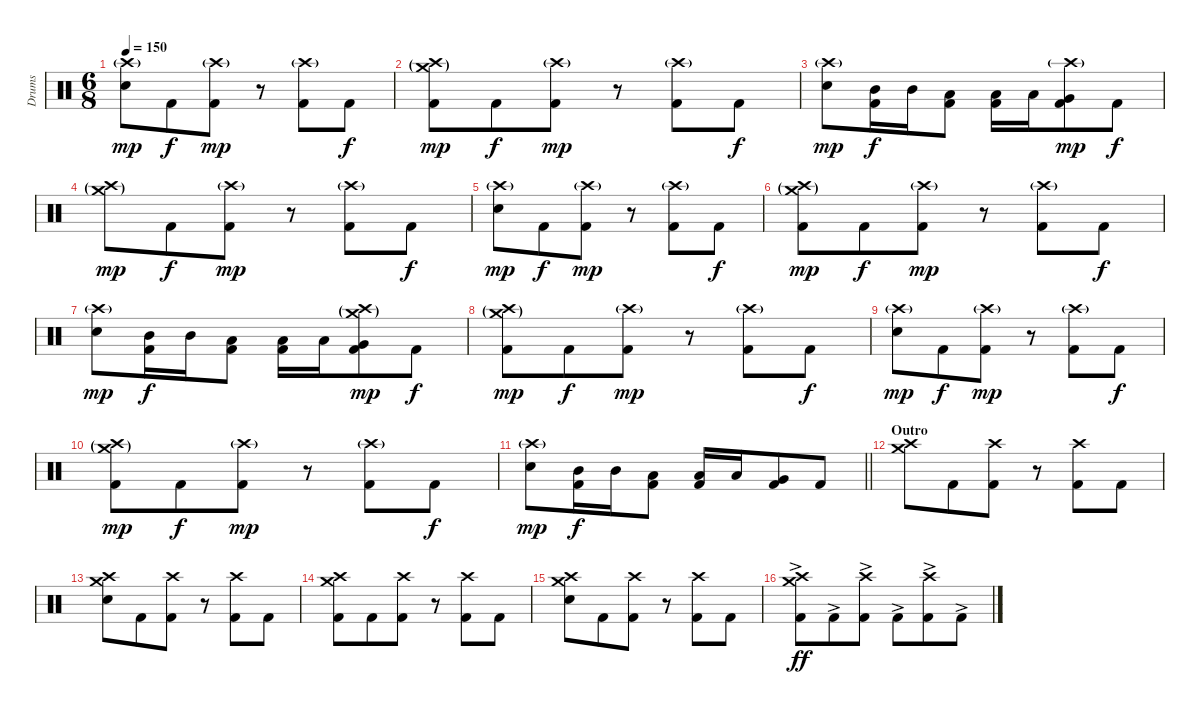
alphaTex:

\track ("Drums" "Drums") {mute instrument percussion}
\staff {score}
\articulation defaults
\ts (6 8)
\tempo 150
\clef neutral
\ks c
("Crash high (hit)"{g} "Electric Snare (hit)").8{dy mp} "Kick (hit) 2".8{dy f} ("Crash high (hit)"{g} "Kick (hit) 2").8{dy mp} r.8 ("Crash high (hit)"{g} "Kick (hit) 2").8 "Kick (hit) 2".8{dy f} |
("Crash medium (hit)"{g} "Crash high (hit)"{g} "Kick (hit) 2").8{dy mp} "Kick (hit) 2".8{dy f} ("Crash high (hit)"{g} "Kick (hit) 2").8{dy mp} r.8 ("Crash high (hit)"{g} "Kick (hit) 2").8 "Kick (hit) 2".8{dy f} |
("Crash high (hit)"{g} "Electric Snare (hit)").8{dy mp} ("Mid Tom (hit)" "Kick (hit) 2").16{dy f} "Mid Tom (hit)".16 ("Low Tom (hit)" "Kick (hit) 2").8 ("Low Tom (hit)" "Kick (hit) 2").16 "Low Tom (hit)".16 ("Crash high (hit)"{g} "Very Low Tom (hit)" "Kick (hit) 2").8{dy mp} "Kick (hit) 2".8{dy f} |
("Crash medium (hit)"{g} "Crash high (hit)"{g}).8{dy mp} "Kick (hit) 2".8{dy f} ("Crash high (hit)"{g} "Kick (hit) 2").8{dy mp} r.8 ("Crash high (hit)"{g} "Kick (hit) 2").8 "Kick (hit) 2".8{dy f} |
("Crash high (hit)"{g} "Electric Snare (hit)").8{dy mp} "Kick (hit) 2".8{dy f} ("Crash high (hit)"{g} "Kick (hit) 2").8{dy mp} r.8 ("Crash high (hit)"{g} "Kick (hit) 2").8 "Kick (hit) 2".8{dy f} |
("Crash medium (hit)"{g} "Crash high (hit)"{g} "Kick (hit) 2").8{dy mp} "Kick (hit) 2".8{dy f} ("Crash high (hit)"{g} "Kick (hit) 2").8{dy mp} r.8 ("Crash high (hit)"{g} "Kick (hit) 2").8 "Kick (hit) 2".8{dy f} |
("Crash high (hit)"{g} "Electric Snare (hit)").8{dy mp} ("Mid Tom (hit)" "Kick (hit) 2").16{dy f} "Mid Tom (hit)".16 ("Low Tom (hit)" "Kick (hit) 2").8 ("Low Tom (hit)" "Kick (hit) 2").16 "Low Tom (hit)".16 ("Crash medium (hit)"{g} "Crash high (hit)"{g} "Very Low Tom (hit)" "Kick (hit) 2").8{dy mp} "Kick (hit) 2".8{dy f} |
("Crash medium (hit)"{g} "Crash high (hit)"{g} "Kick (hit) 2").8{dy mp} "Kick (hit) 2".8{dy f} ("Crash high (hit)"{g} "Kick (hit) 2").8{dy mp} r.8 ("Crash high (hit)"{g} "Kick (hit) 2").8 "Kick (hit) 2".8{dy f} |
("Crash high (hit)"{g} "Electric Snare (hit)").8{dy mp} "Kick (hit) 2".8{dy f} ("Crash high (hit)"{g} "Kick (hit) 2").8{dy mp} r.8 ("Crash high (hit)"{g} "Kick (hit) 2").8 "Kick (hit) 2".8{dy f} |
("Crash medium (hit)"{g} "Crash high (hit)"{g} "Kick (hit) 2").8{dy mp} "Kick (hit) 2".8{dy f} ("Crash high (hit)"{g} "Kick (hit) 2").8{dy mp} r.8 ("Crash high (hit)"{g} "Kick (hit) 2").8 "Kick (hit) 2".8{dy f} |
\barLineRight lightlight
("Crash high (hit)"{g} "Electric Snare (hit)").8{dy mp} ("Mid Tom (hit)" "Kick (hit) 2").16{dy f} "Mid Tom (hit)".16 ("Low Tom (hit)" "Kick (hit) 2").8 ("Low Tom (hit)" "Kick (hit) 2").16 "Low Tom (hit)".16 ("Very Low Tom (hit)" "Kick (hit) 2").8 "Kick (hit) 2".8 |
\section ("" "Outro")
("Crash medium (hit)" "Crash high (hit)").8 "Kick (hit) 2".8 ("Crash high (hit)" "Kick (hit) 2").8 r.8 ("Crash high (hit)" "Kick (hit) 2").8 "Kick (hit) 2".8 |
("Crash medium (hit)" "Crash high (hit)" "Electric Snare (hit)").8 "Kick (hit) 2".8 ("Crash high (hit)" "Kick (hit) 2").8 r.8 ("Crash high (hit)" "Kick (hit) 2").8 "Kick (hit) 2".8 |
("Crash medium (hit)" "Crash high (hit)" "Kick (hit) 2").8 "Kick (hit) 2".8 ("Crash high (hit)" "Kick (hit) 2").8 r.8 ("Crash high (hit)" "Kick (hit) 2").8 "Kick (hit) 2".8 |
("Crash medium (hit)" "Crash high (hit)" "Electric Snare (hit)").8 "Kick (hit) 2".8 ("Crash high (hit)" "Kick (hit) 2").8 r.8 ("Crash high (hit)" "Kick (hit) 2").8 "Kick (hit) 2".8 |
("Crash medium (hit)" "Crash high (hit)" "Kick (hit) 2"{ac}).8{dy ff} "Kick (hit) 2"{ac}.8 ("Crash high (hit)" "Kick (hit) 2"{ac}).8 "Kick (hit) 2"{ac}.8 ("Crash high (hit)" "Kick (hit) 2"{ac}).8 "Kick (hit) 2"{ac}.8
